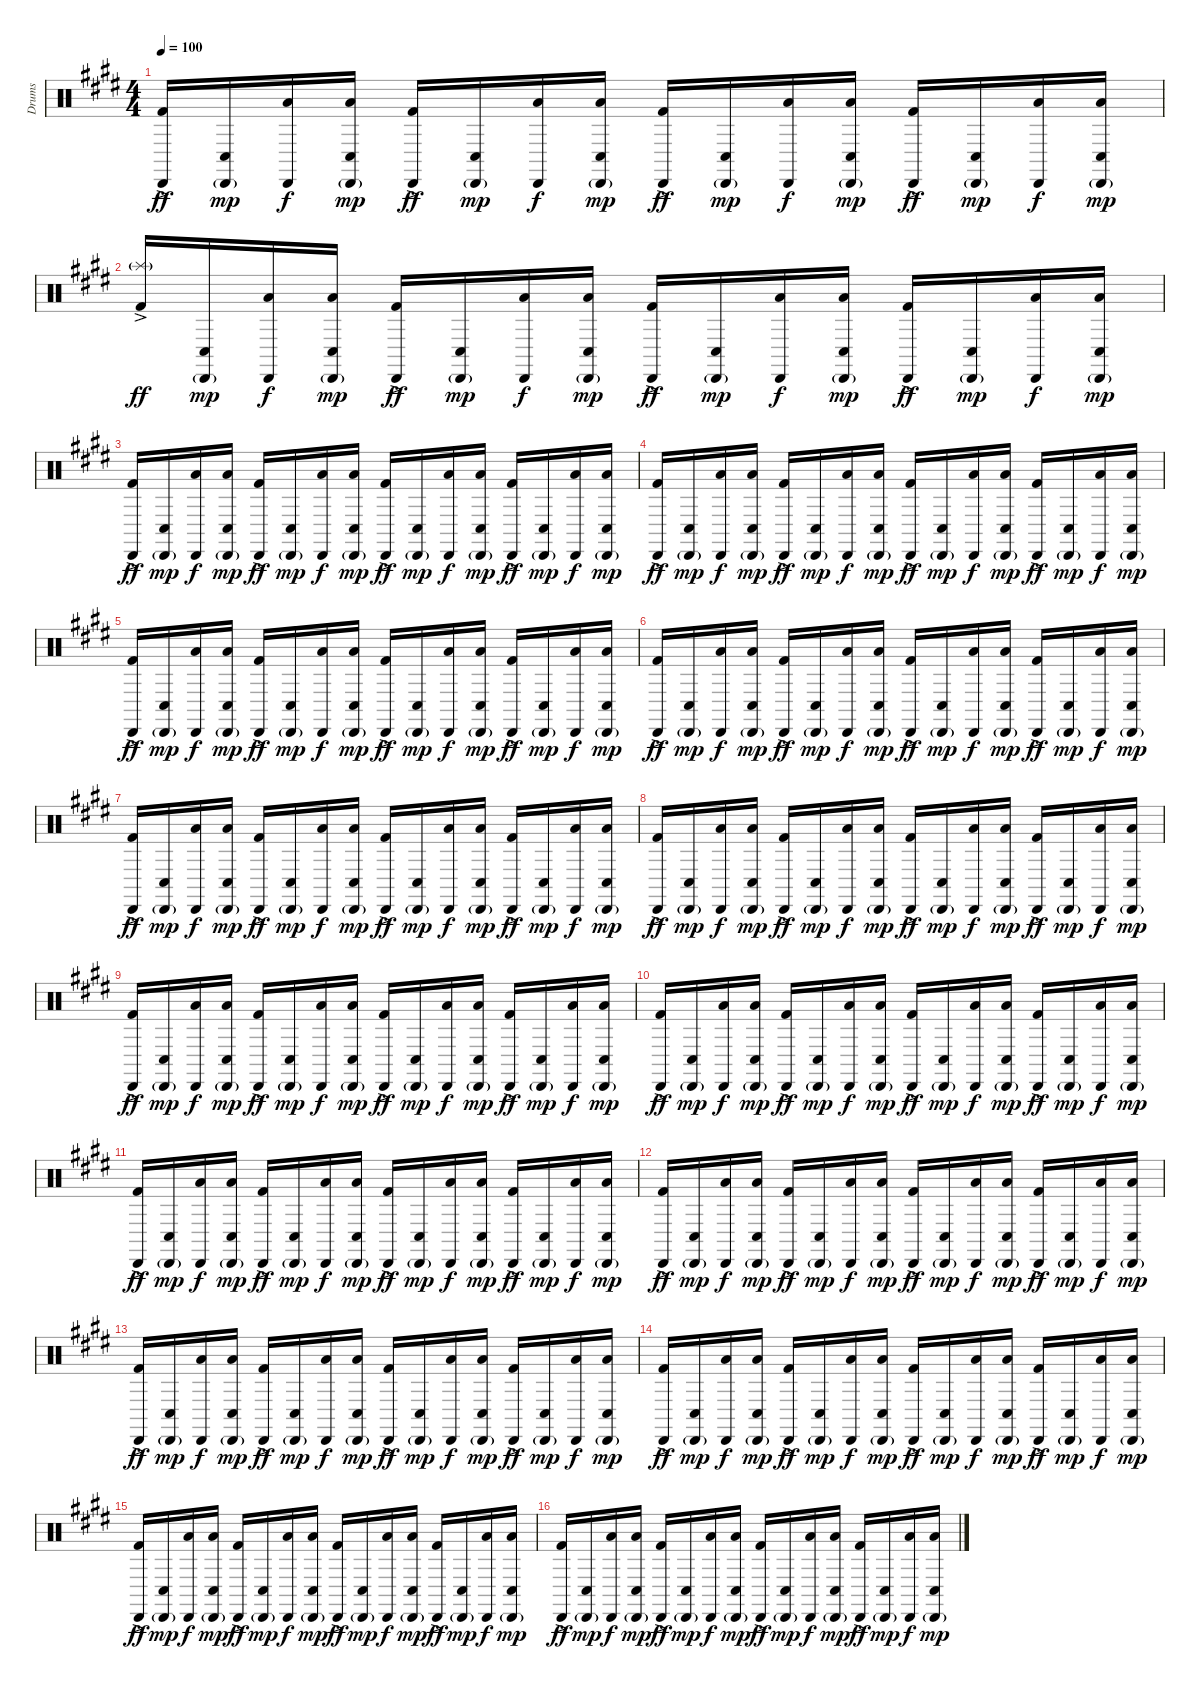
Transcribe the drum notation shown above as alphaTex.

\track ("Drums" "Drums") {instrument percussion}
\staff {score}
\articulation defaults
\ts (4 4)
\tempo 100
\clef neutral
\ks e
("Cabasa (hit)" "Kick (hit) 2"{ac}).16{dy ff} ("Cabasa (hit)"{g} "Conga low (hit)").16{dy mp} ("Cabasa (hit)" "Low Tom (hit)").16{dy f} ("Cabasa (hit)"{g} "Low Tom (hit)" "Conga low (hit)").16{dy mp} ("Cabasa (hit)" "Kick (hit) 2"{ac}).16{dy ff} ("Cabasa (hit)"{g} "Conga low (hit)").16{dy mp} ("Cabasa (hit)" "Low Tom (hit)").16{dy f} ("Cabasa (hit)"{g} "Low Tom (hit)" "Conga low (hit)").16{dy mp} ("Cabasa (hit)" "Kick (hit) 2"{ac}).16{dy ff} ("Cabasa (hit)"{g} "Conga low (hit)").16{dy mp} ("Cabasa (hit)" "Low Tom (hit)").16{dy f} ("Cabasa (hit)"{g} "Low Tom (hit)" "Conga low (hit)").16{dy mp} ("Cabasa (hit)" "Kick (hit) 2"{ac}).16{dy ff} ("Cabasa (hit)"{g} "Conga low (hit)").16{dy mp} ("Cabasa (hit)" "Low Tom (hit)").16{dy f} ("Cabasa (hit)"{g} "Low Tom (hit)" "Conga low (hit)").16{dy mp} |
("Splash (hit)"{g} "Kick (hit) 2"{ac}).16{dy ff} ("Cabasa (hit)"{g} "Conga low (hit)").16{dy mp} ("Cabasa (hit)" "Low Tom (hit)").16{dy f} ("Cabasa (hit)"{g} "Low Tom (hit)" "Conga low (hit)").16{dy mp} ("Cabasa (hit)" "Kick (hit) 2"{ac}).16{dy ff} ("Cabasa (hit)"{g} "Conga low (hit)").16{dy mp} ("Cabasa (hit)" "Low Tom (hit)").16{dy f} ("Cabasa (hit)"{g} "Low Tom (hit)" "Conga low (hit)").16{dy mp} ("Cabasa (hit)" "Kick (hit) 2"{ac}).16{dy ff} ("Cabasa (hit)"{g} "Conga low (hit)").16{dy mp} ("Cabasa (hit)" "Low Tom (hit)").16{dy f} ("Cabasa (hit)"{g} "Low Tom (hit)" "Conga low (hit)").16{dy mp} ("Cabasa (hit)" "Kick (hit) 2"{ac}).16{dy ff} ("Cabasa (hit)"{g} "Conga low (hit)").16{dy mp} ("Cabasa (hit)" "Low Tom (hit)").16{dy f} ("Cabasa (hit)"{g} "Low Tom (hit)" "Conga low (hit)").16{dy mp} |
("Cabasa (hit)" "Kick (hit) 2"{ac}).16{dy ff} ("Cabasa (hit)"{g} "Conga low (hit)").16{dy mp} ("Cabasa (hit)" "Low Tom (hit)").16{dy f} ("Cabasa (hit)"{g} "Low Tom (hit)" "Conga low (hit)").16{dy mp} ("Cabasa (hit)" "Kick (hit) 2"{ac}).16{dy ff} ("Cabasa (hit)"{g} "Conga low (hit)").16{dy mp} ("Cabasa (hit)" "Low Tom (hit)").16{dy f} ("Cabasa (hit)"{g} "Low Tom (hit)" "Conga low (hit)").16{dy mp} ("Cabasa (hit)" "Kick (hit) 2"{ac}).16{dy ff} ("Cabasa (hit)"{g} "Conga low (hit)").16{dy mp} ("Cabasa (hit)" "Low Tom (hit)").16{dy f} ("Cabasa (hit)"{g} "Low Tom (hit)" "Conga low (hit)").16{dy mp} ("Cabasa (hit)" "Kick (hit) 2"{ac}).16{dy ff} ("Cabasa (hit)"{g} "Conga low (hit)").16{dy mp} ("Cabasa (hit)" "Low Tom (hit)").16{dy f} ("Cabasa (hit)"{g} "Low Tom (hit)" "Conga low (hit)").16{dy mp} |
("Cabasa (hit)" "Kick (hit) 2"{ac}).16{dy ff} ("Cabasa (hit)"{g} "Conga low (hit)").16{dy mp} ("Cabasa (hit)" "Low Tom (hit)").16{dy f} ("Cabasa (hit)"{g} "Low Tom (hit)" "Conga low (hit)").16{dy mp} ("Cabasa (hit)" "Kick (hit) 2"{ac}).16{dy ff} ("Cabasa (hit)"{g} "Conga low (hit)").16{dy mp} ("Cabasa (hit)" "Low Tom (hit)").16{dy f} ("Cabasa (hit)"{g} "Low Tom (hit)" "Conga low (hit)").16{dy mp} ("Cabasa (hit)" "Kick (hit) 2"{ac}).16{dy ff} ("Cabasa (hit)"{g} "Conga low (hit)").16{dy mp} ("Cabasa (hit)" "Low Tom (hit)").16{dy f} ("Cabasa (hit)"{g} "Low Tom (hit)" "Conga low (hit)").16{dy mp} ("Cabasa (hit)" "Kick (hit) 2"{ac}).16{dy ff} ("Cabasa (hit)"{g} "Conga low (hit)").16{dy mp} ("Cabasa (hit)" "Low Tom (hit)").16{dy f} ("Cabasa (hit)"{g} "Low Tom (hit)" "Conga low (hit)").16{dy mp} |
("Cabasa (hit)" "Kick (hit) 2"{ac}).16{dy ff} ("Cabasa (hit)"{g} "Conga low (hit)").16{dy mp} ("Cabasa (hit)" "Low Tom (hit)").16{dy f} ("Cabasa (hit)"{g} "Low Tom (hit)" "Conga low (hit)").16{dy mp} ("Cabasa (hit)" "Kick (hit) 2"{ac}).16{dy ff} ("Cabasa (hit)"{g} "Conga low (hit)").16{dy mp} ("Cabasa (hit)" "Low Tom (hit)").16{dy f} ("Cabasa (hit)"{g} "Low Tom (hit)" "Conga low (hit)").16{dy mp} ("Cabasa (hit)" "Kick (hit) 2"{ac}).16{dy ff} ("Cabasa (hit)"{g} "Conga low (hit)").16{dy mp} ("Cabasa (hit)" "Low Tom (hit)").16{dy f} ("Cabasa (hit)"{g} "Low Tom (hit)" "Conga low (hit)").16{dy mp} ("Cabasa (hit)" "Kick (hit) 2"{ac}).16{dy ff} ("Cabasa (hit)"{g} "Conga low (hit)").16{dy mp} ("Cabasa (hit)" "Low Tom (hit)").16{dy f} ("Cabasa (hit)"{g} "Low Tom (hit)" "Conga low (hit)").16{dy mp} |
("Cabasa (hit)" "Kick (hit) 2"{ac}).16{dy ff} ("Cabasa (hit)"{g} "Conga low (hit)").16{dy mp} ("Cabasa (hit)" "Low Tom (hit)").16{dy f} ("Cabasa (hit)"{g} "Low Tom (hit)" "Conga low (hit)").16{dy mp} ("Cabasa (hit)" "Kick (hit) 2"{ac}).16{dy ff} ("Cabasa (hit)"{g} "Conga low (hit)").16{dy mp} ("Cabasa (hit)" "Low Tom (hit)").16{dy f} ("Cabasa (hit)"{g} "Low Tom (hit)" "Conga low (hit)").16{dy mp} ("Cabasa (hit)" "Kick (hit) 2"{ac}).16{dy ff} ("Cabasa (hit)"{g} "Conga low (hit)").16{dy mp} ("Cabasa (hit)" "Low Tom (hit)").16{dy f} ("Cabasa (hit)"{g} "Low Tom (hit)" "Conga low (hit)").16{dy mp} ("Cabasa (hit)" "Kick (hit) 2"{ac}).16{dy ff} ("Cabasa (hit)"{g} "Conga low (hit)").16{dy mp} ("Cabasa (hit)" "Low Tom (hit)").16{dy f} ("Cabasa (hit)"{g} "Low Tom (hit)" "Conga low (hit)").16{dy mp} |
("Cabasa (hit)" "Kick (hit) 2"{ac}).16{dy ff} ("Cabasa (hit)"{g} "Conga low (hit)").16{dy mp} ("Cabasa (hit)" "Low Tom (hit)").16{dy f} ("Cabasa (hit)"{g} "Low Tom (hit)" "Conga low (hit)").16{dy mp} ("Cabasa (hit)" "Kick (hit) 2"{ac}).16{dy ff} ("Cabasa (hit)"{g} "Conga low (hit)").16{dy mp} ("Cabasa (hit)" "Low Tom (hit)").16{dy f} ("Cabasa (hit)"{g} "Low Tom (hit)" "Conga low (hit)").16{dy mp} ("Cabasa (hit)" "Kick (hit) 2"{ac}).16{dy ff} ("Cabasa (hit)"{g} "Conga low (hit)").16{dy mp} ("Cabasa (hit)" "Low Tom (hit)").16{dy f} ("Cabasa (hit)"{g} "Low Tom (hit)" "Conga low (hit)").16{dy mp} ("Cabasa (hit)" "Kick (hit) 2"{ac}).16{dy ff} ("Cabasa (hit)"{g} "Conga low (hit)").16{dy mp} ("Cabasa (hit)" "Low Tom (hit)").16{dy f} ("Cabasa (hit)"{g} "Low Tom (hit)" "Conga low (hit)").16{dy mp} |
("Cabasa (hit)" "Kick (hit) 2"{ac}).16{dy ff} ("Cabasa (hit)"{g} "Conga low (hit)").16{dy mp} ("Cabasa (hit)" "Low Tom (hit)").16{dy f} ("Cabasa (hit)"{g} "Low Tom (hit)" "Conga low (hit)").16{dy mp} ("Cabasa (hit)" "Kick (hit) 2"{ac}).16{dy ff} ("Cabasa (hit)"{g} "Conga low (hit)").16{dy mp} ("Cabasa (hit)" "Low Tom (hit)").16{dy f} ("Cabasa (hit)"{g} "Low Tom (hit)" "Conga low (hit)").16{dy mp} ("Cabasa (hit)" "Kick (hit) 2"{ac}).16{dy ff} ("Cabasa (hit)"{g} "Conga low (hit)").16{dy mp} ("Cabasa (hit)" "Low Tom (hit)").16{dy f} ("Cabasa (hit)"{g} "Low Tom (hit)" "Conga low (hit)").16{dy mp} ("Cabasa (hit)" "Kick (hit) 2"{ac}).16{dy ff} ("Cabasa (hit)"{g} "Conga low (hit)").16{dy mp} ("Cabasa (hit)" "Low Tom (hit)").16{dy f} ("Cabasa (hit)"{g} "Low Tom (hit)" "Conga low (hit)").16{dy mp} |
("Cabasa (hit)" "Kick (hit) 2"{ac}).16{dy ff} ("Cabasa (hit)"{g} "Conga low (hit)").16{dy mp} ("Cabasa (hit)" "Low Tom (hit)").16{dy f} ("Cabasa (hit)"{g} "Low Tom (hit)" "Conga low (hit)").16{dy mp} ("Cabasa (hit)" "Kick (hit) 2"{ac}).16{dy ff} ("Cabasa (hit)"{g} "Conga low (hit)").16{dy mp} ("Cabasa (hit)" "Low Tom (hit)").16{dy f} ("Cabasa (hit)"{g} "Low Tom (hit)" "Conga low (hit)").16{dy mp} ("Cabasa (hit)" "Kick (hit) 2"{ac}).16{dy ff} ("Cabasa (hit)"{g} "Conga low (hit)").16{dy mp} ("Cabasa (hit)" "Low Tom (hit)").16{dy f} ("Cabasa (hit)"{g} "Low Tom (hit)" "Conga low (hit)").16{dy mp} ("Cabasa (hit)" "Kick (hit) 2"{ac}).16{dy ff} ("Cabasa (hit)"{g} "Conga low (hit)").16{dy mp} ("Cabasa (hit)" "Low Tom (hit)").16{dy f} ("Cabasa (hit)"{g} "Low Tom (hit)" "Conga low (hit)").16{dy mp} |
("Cabasa (hit)" "Kick (hit) 2"{ac}).16{dy ff} ("Cabasa (hit)"{g} "Conga low (hit)").16{dy mp} ("Cabasa (hit)" "Low Tom (hit)").16{dy f} ("Cabasa (hit)"{g} "Low Tom (hit)" "Conga low (hit)").16{dy mp} ("Cabasa (hit)" "Kick (hit) 2"{ac}).16{dy ff} ("Cabasa (hit)"{g} "Conga low (hit)").16{dy mp} ("Cabasa (hit)" "Low Tom (hit)").16{dy f} ("Cabasa (hit)"{g} "Low Tom (hit)" "Conga low (hit)").16{dy mp} ("Cabasa (hit)" "Kick (hit) 2"{ac}).16{dy ff} ("Cabasa (hit)"{g} "Conga low (hit)").16{dy mp} ("Cabasa (hit)" "Low Tom (hit)").16{dy f} ("Cabasa (hit)"{g} "Low Tom (hit)" "Conga low (hit)").16{dy mp} ("Cabasa (hit)" "Kick (hit) 2"{ac}).16{dy ff} ("Cabasa (hit)"{g} "Conga low (hit)").16{dy mp} ("Cabasa (hit)" "Low Tom (hit)").16{dy f} ("Cabasa (hit)"{g} "Low Tom (hit)" "Conga low (hit)").16{dy mp} |
("Cabasa (hit)" "Kick (hit) 2"{ac}).16{dy ff} ("Cabasa (hit)"{g} "Conga low (hit)").16{dy mp} ("Cabasa (hit)" "Low Tom (hit)").16{dy f} ("Cabasa (hit)"{g} "Low Tom (hit)" "Conga low (hit)").16{dy mp} ("Cabasa (hit)" "Kick (hit) 2"{ac}).16{dy ff} ("Cabasa (hit)"{g} "Conga low (hit)").16{dy mp} ("Cabasa (hit)" "Low Tom (hit)").16{dy f} ("Cabasa (hit)"{g} "Low Tom (hit)" "Conga low (hit)").16{dy mp} ("Cabasa (hit)" "Kick (hit) 2"{ac}).16{dy ff} ("Cabasa (hit)"{g} "Conga low (hit)").16{dy mp} ("Cabasa (hit)" "Low Tom (hit)").16{dy f} ("Cabasa (hit)"{g} "Low Tom (hit)" "Conga low (hit)").16{dy mp} ("Cabasa (hit)" "Kick (hit) 2"{ac}).16{dy ff} ("Cabasa (hit)"{g} "Conga low (hit)").16{dy mp} ("Cabasa (hit)" "Low Tom (hit)").16{dy f} ("Cabasa (hit)"{g} "Low Tom (hit)" "Conga low (hit)").16{dy mp} |
("Cabasa (hit)" "Kick (hit) 2"{ac}).16{dy ff} ("Cabasa (hit)"{g} "Conga low (hit)").16{dy mp} ("Cabasa (hit)" "Low Tom (hit)").16{dy f} ("Cabasa (hit)"{g} "Low Tom (hit)" "Conga low (hit)").16{dy mp} ("Cabasa (hit)" "Kick (hit) 2"{ac}).16{dy ff} ("Cabasa (hit)"{g} "Conga low (hit)").16{dy mp} ("Cabasa (hit)" "Low Tom (hit)").16{dy f} ("Cabasa (hit)"{g} "Low Tom (hit)" "Conga low (hit)").16{dy mp} ("Cabasa (hit)" "Kick (hit) 2"{ac}).16{dy ff} ("Cabasa (hit)"{g} "Conga low (hit)").16{dy mp} ("Cabasa (hit)" "Low Tom (hit)").16{dy f} ("Cabasa (hit)"{g} "Low Tom (hit)" "Conga low (hit)").16{dy mp} ("Cabasa (hit)" "Kick (hit) 2"{ac}).16{dy ff} ("Cabasa (hit)"{g} "Conga low (hit)").16{dy mp} ("Cabasa (hit)" "Low Tom (hit)").16{dy f} ("Cabasa (hit)"{g} "Low Tom (hit)" "Conga low (hit)").16{dy mp} |
("Cabasa (hit)" "Kick (hit) 2"{ac}).16{dy ff} ("Cabasa (hit)"{g} "Conga low (hit)").16{dy mp} ("Cabasa (hit)" "Low Tom (hit)").16{dy f} ("Cabasa (hit)"{g} "Low Tom (hit)" "Conga low (hit)").16{dy mp} ("Cabasa (hit)" "Kick (hit) 2"{ac}).16{dy ff} ("Cabasa (hit)"{g} "Conga low (hit)").16{dy mp} ("Cabasa (hit)" "Low Tom (hit)").16{dy f} ("Cabasa (hit)"{g} "Low Tom (hit)" "Conga low (hit)").16{dy mp} ("Cabasa (hit)" "Kick (hit) 2"{ac}).16{dy ff} ("Cabasa (hit)"{g} "Conga low (hit)").16{dy mp} ("Cabasa (hit)" "Low Tom (hit)").16{dy f} ("Cabasa (hit)"{g} "Low Tom (hit)" "Conga low (hit)").16{dy mp} ("Cabasa (hit)" "Kick (hit) 2"{ac}).16{dy ff} ("Cabasa (hit)"{g} "Conga low (hit)").16{dy mp} ("Cabasa (hit)" "Low Tom (hit)").16{dy f} ("Cabasa (hit)"{g} "Low Tom (hit)" "Conga low (hit)").16{dy mp} |
("Cabasa (hit)" "Kick (hit) 2"{ac}).16{dy ff} ("Cabasa (hit)"{g} "Conga low (hit)").16{dy mp} ("Cabasa (hit)" "Low Tom (hit)").16{dy f} ("Cabasa (hit)"{g} "Low Tom (hit)" "Conga low (hit)").16{dy mp} ("Cabasa (hit)" "Kick (hit) 2"{ac}).16{dy ff} ("Cabasa (hit)"{g} "Conga low (hit)").16{dy mp} ("Cabasa (hit)" "Low Tom (hit)").16{dy f} ("Cabasa (hit)"{g} "Low Tom (hit)" "Conga low (hit)").16{dy mp} ("Cabasa (hit)" "Kick (hit) 2"{ac}).16{dy ff} ("Cabasa (hit)"{g} "Conga low (hit)").16{dy mp} ("Cabasa (hit)" "Low Tom (hit)").16{dy f} ("Cabasa (hit)"{g} "Low Tom (hit)" "Conga low (hit)").16{dy mp} ("Cabasa (hit)" "Kick (hit) 2"{ac}).16{dy ff} ("Cabasa (hit)"{g} "Conga low (hit)").16{dy mp} ("Cabasa (hit)" "Low Tom (hit)").16{dy f} ("Cabasa (hit)"{g} "Low Tom (hit)" "Conga low (hit)").16{dy mp} |
("Cabasa (hit)" "Kick (hit) 2"{ac}).16{dy ff} ("Cabasa (hit)"{g} "Conga low (hit)").16{dy mp} ("Cabasa (hit)" "Low Tom (hit)").16{dy f} ("Cabasa (hit)"{g} "Low Tom (hit)" "Conga low (hit)").16{dy mp} ("Cabasa (hit)" "Kick (hit) 2"{ac}).16{dy ff} ("Cabasa (hit)"{g} "Conga low (hit)").16{dy mp} ("Cabasa (hit)" "Low Tom (hit)").16{dy f} ("Cabasa (hit)"{g} "Low Tom (hit)" "Conga low (hit)").16{dy mp} ("Cabasa (hit)" "Kick (hit) 2"{ac}).16{dy ff} ("Cabasa (hit)"{g} "Conga low (hit)").16{dy mp} ("Cabasa (hit)" "Low Tom (hit)").16{dy f} ("Cabasa (hit)"{g} "Low Tom (hit)" "Conga low (hit)").16{dy mp} ("Cabasa (hit)" "Kick (hit) 2"{ac}).16{dy ff} ("Cabasa (hit)"{g} "Conga low (hit)").16{dy mp} ("Cabasa (hit)" "Low Tom (hit)").16{dy f} ("Cabasa (hit)"{g} "Low Tom (hit)" "Conga low (hit)").16{dy mp} |
("Cabasa (hit)" "Kick (hit) 2"{ac}).16{dy ff} ("Cabasa (hit)"{g} "Conga low (hit)").16{dy mp} ("Cabasa (hit)" "Low Tom (hit)").16{dy f} ("Cabasa (hit)"{g} "Low Tom (hit)" "Conga low (hit)").16{dy mp} ("Cabasa (hit)" "Kick (hit) 2"{ac}).16{dy ff} ("Cabasa (hit)"{g} "Conga low (hit)").16{dy mp} ("Cabasa (hit)" "Low Tom (hit)").16{dy f} ("Cabasa (hit)"{g} "Low Tom (hit)" "Conga low (hit)").16{dy mp} ("Cabasa (hit)" "Kick (hit) 2"{ac}).16{dy ff} ("Cabasa (hit)"{g} "Conga low (hit)").16{dy mp} ("Cabasa (hit)" "Low Tom (hit)").16{dy f} ("Cabasa (hit)"{g} "Low Tom (hit)" "Conga low (hit)").16{dy mp} ("Cabasa (hit)" "Kick (hit) 2"{ac}).16{dy ff} ("Cabasa (hit)"{g} "Conga low (hit)").16{dy mp} ("Cabasa (hit)" "Low Tom (hit)").16{dy f} ("Cabasa (hit)"{g} "Low Tom (hit)" "Conga low (hit)").16{dy mp}
